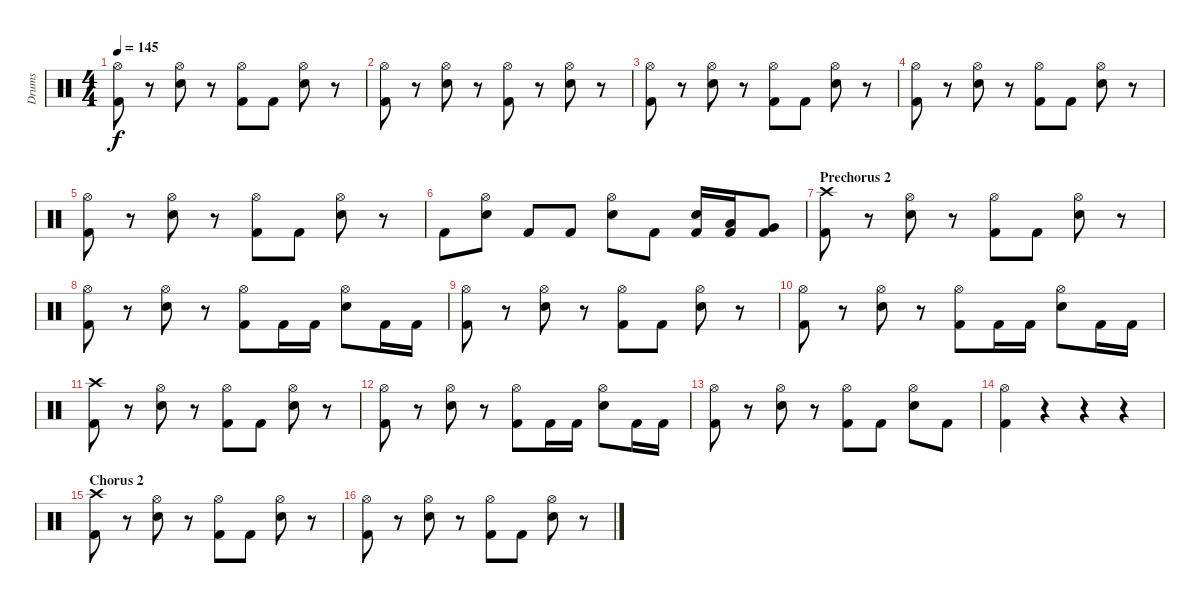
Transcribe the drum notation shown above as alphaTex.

\track ("Drums" "Drums") {instrument percussion}
\staff {score}
\articulation defaults
\ts (4 4)
\tempo 145
\clef neutral
\ks c
("Hi-Hat (open)" "Kick (hit) 2").8{dy f} r.8 ("Hi-Hat (open)" "Snare (hit) 2").8 r.8 ("Hi-Hat (open)" "Kick (hit) 2").8 "Kick (hit) 2".8 ("Hi-Hat (open)" "Snare (hit) 2").8 r.8 |
("Hi-Hat (open)" "Kick (hit) 2").8 r.8 ("Hi-Hat (open)" "Snare (hit) 2").8 r.8 ("Hi-Hat (open)" "Kick (hit) 2").8 r.8 ("Hi-Hat (open)" "Snare (hit) 2").8 r.8 |
("Hi-Hat (open)" "Kick (hit) 2").8 r.8 ("Hi-Hat (open)" "Snare (hit) 2").8 r.8 ("Hi-Hat (open)" "Kick (hit) 2").8 "Kick (hit) 2".8 ("Hi-Hat (open)" "Snare (hit) 2").8 r.8 |
("Hi-Hat (open)" "Kick (hit) 2").8 r.8 ("Hi-Hat (open)" "Snare (hit) 2").8 r.8 ("Hi-Hat (open)" "Kick (hit) 2").8 "Kick (hit) 2".8 ("Hi-Hat (open)" "Snare (hit) 2").8 r.8 |
("Hi-Hat (open)" "Kick (hit) 2").8 r.8 ("Hi-Hat (open)" "Snare (hit) 2").8 r.8 ("Hi-Hat (open)" "Kick (hit) 2").8 "Kick (hit) 2".8 ("Hi-Hat (open)" "Snare (hit) 2").8 r.8 |
"Kick (hit) 2".8 ("Hi-Hat (open)" "Snare (hit) 2").8 "Kick (hit) 2".8 "Kick (hit) 2".8 ("Hi-Hat (open)" "Snare (hit) 2").8 "Kick (hit) 2".8 ("Snare (hit) 2" "Kick (hit) 2").16 ("Low Tom (hit)" "Kick (hit) 2").16 ("Very Low Tom (hit)" "Kick (hit) 2").8 |
\section ("" "Prechorus 2")
("Crash high (hit)" "Kick (hit) 2").8 r.8 ("Hi-Hat (open)" "Snare (hit) 2").8 r.8 ("Hi-Hat (open)" "Kick (hit) 2").8 "Kick (hit) 2".8 ("Hi-Hat (open)" "Snare (hit) 2").8 r.8 |
("Hi-Hat (open)" "Kick (hit) 2").8 r.8 ("Hi-Hat (open)" "Snare (hit) 2").8 r.8 ("Hi-Hat (open)" "Kick (hit) 2").8 "Kick (hit) 2".16 "Kick (hit) 2".16 ("Hi-Hat (open)" "Snare (hit) 2").8 "Kick (hit) 2".16 "Kick (hit) 2".16 |
("Hi-Hat (open)" "Kick (hit) 2").8 r.8 ("Hi-Hat (open)" "Snare (hit) 2").8 r.8 ("Hi-Hat (open)" "Kick (hit) 2").8 "Kick (hit) 2".8 ("Hi-Hat (open)" "Snare (hit) 2").8 r.8 |
("Hi-Hat (open)" "Kick (hit) 2").8 r.8 ("Hi-Hat (open)" "Snare (hit) 2").8 r.8 ("Hi-Hat (open)" "Kick (hit) 2").8 "Kick (hit) 2".16 "Kick (hit) 2".16 ("Hi-Hat (open)" "Snare (hit) 2").8 "Kick (hit) 2".16 "Kick (hit) 2".16 |
("Crash high (hit)" "Kick (hit) 2").8 r.8 ("Hi-Hat (open)" "Snare (hit) 2").8 r.8 ("Hi-Hat (open)" "Kick (hit) 2").8 "Kick (hit) 2".8 ("Hi-Hat (open)" "Snare (hit) 2").8 r.8 |
("Hi-Hat (open)" "Kick (hit) 2").8 r.8 ("Hi-Hat (open)" "Snare (hit) 2").8 r.8 ("Hi-Hat (open)" "Kick (hit) 2").8 "Kick (hit) 2".16 "Kick (hit) 2".16 ("Hi-Hat (open)" "Snare (hit) 2").8 "Kick (hit) 2".16 "Kick (hit) 2".16 |
("Hi-Hat (open)" "Kick (hit) 2").8 r.8 ("Hi-Hat (open)" "Snare (hit) 2").8 r.8 ("Hi-Hat (open)" "Kick (hit) 2").8 "Kick (hit) 2".8 ("Hi-Hat (open)" "Snare (hit) 2").8 "Kick (hit) 2".8 |
("Hi-Hat (open)" "Kick (hit) 2").4 r.4 r.4 r.4 |
\section ("" "Chorus 2")
("Crash high (hit)" "Kick (hit) 2").8 r.8 ("Hi-Hat (open)" "Snare (hit) 2").8 r.8 ("Hi-Hat (open)" "Kick (hit) 2").8 "Kick (hit) 2".8 ("Hi-Hat (open)" "Snare (hit) 2").8 r.8 |
("Hi-Hat (open)" "Kick (hit) 2").8 r.8 ("Hi-Hat (open)" "Snare (hit) 2").8 r.8 ("Hi-Hat (open)" "Kick (hit) 2").8 "Kick (hit) 2".8 ("Hi-Hat (open)" "Snare (hit) 2").8 r.8
